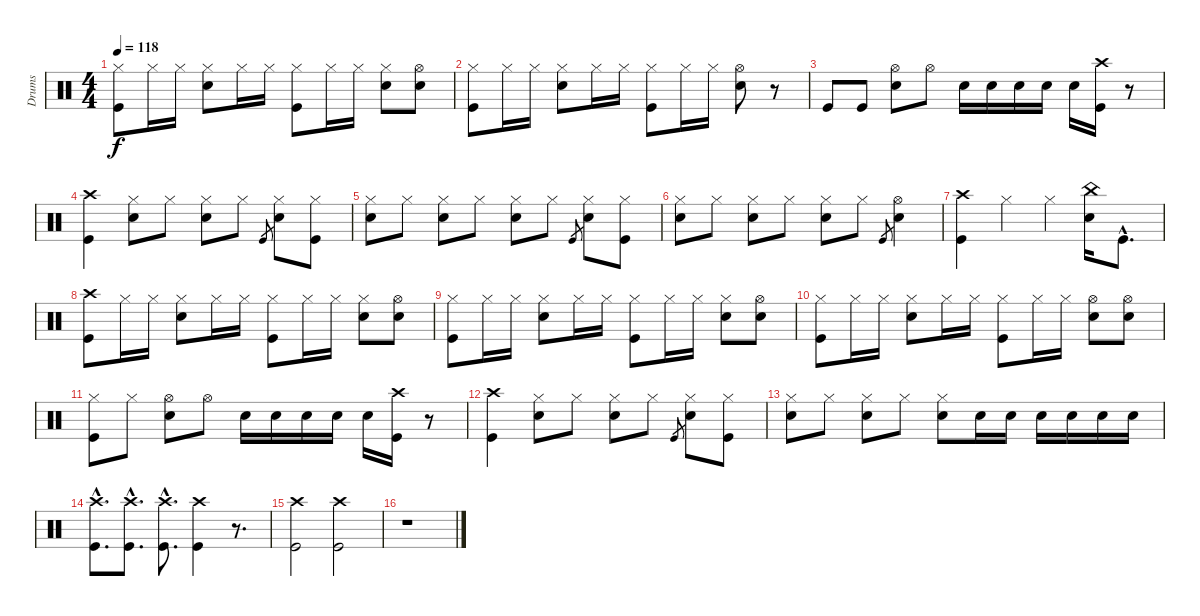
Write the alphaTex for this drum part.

\track ("Drums" "Drums") {instrument percussion}
\staff {score}
\articulation defaults
\ts (4 4)
\tempo 118
\clef neutral
\ks c
("Hi-Hat (closed)" "Kick (hit)").8{dy f} "Hi-Hat (closed)".16 "Hi-Hat (closed)".16 ("Hi-Hat (closed)" "Snare (hit) 2").8 "Hi-Hat (closed)".16 "Hi-Hat (closed)".16 ("Hi-Hat (closed)" "Kick (hit)").8 "Hi-Hat (closed)".16 "Hi-Hat (closed)".16 ("Hi-Hat (closed)" "Snare (hit) 2").8 ("Hi-Hat (open)" "Snare (hit) 2").8 |
("Hi-Hat (closed)" "Kick (hit)").8 "Hi-Hat (closed)".16 "Hi-Hat (closed)".16 ("Hi-Hat (closed)" "Snare (hit) 2").8 "Hi-Hat (closed)".16 "Hi-Hat (closed)".16 ("Hi-Hat (closed)" "Kick (hit)").8 "Hi-Hat (closed)".16 "Hi-Hat (closed)".16 ("Hi-Hat (open)" "Snare (hit) 2").8 r.8 |
"Kick (hit)".8 "Kick (hit)".8 ("Hi-Hat (open)" "Snare (hit) 2").8 "Hi-Hat (open)".8 "Snare (hit) 2".16 "Snare (hit) 2".16 "Snare (hit) 2".16 "Snare (hit) 2".16 "Snare (hit) 2".16 ("Crash high (hit)" "Kick (hit)").16 r.8 |
("Crash high (hit)" "Kick (hit)").4 ("Hi-Hat (closed)" "Snare (hit) 2").8 "Hi-Hat (closed)".8 ("Hi-Hat (closed)" "Snare (hit) 2").8 "Hi-Hat (closed)".8 "Kick (hit)".8{gr} ("Hi-Hat (closed)" "Snare (hit) 2").8 ("Hi-Hat (closed)" "Kick (hit)").8 |
("Hi-Hat (closed)" "Snare (hit) 2").8 "Hi-Hat (closed)".8 ("Hi-Hat (closed)" "Snare (hit) 2").8 "Hi-Hat (closed)".8 ("Hi-Hat (closed)" "Snare (hit) 2").8 "Hi-Hat (closed)".8 "Kick (hit)".8{gr} ("Hi-Hat (closed)" "Snare (hit) 2").8 ("Hi-Hat (closed)" "Kick (hit)").8 |
("Hi-Hat (closed)" "Snare (hit) 2").8 "Hi-Hat (closed)".8 ("Hi-Hat (closed)" "Snare (hit) 2").8 "Hi-Hat (closed)".8 ("Hi-Hat (closed)" "Snare (hit) 2").8 "Hi-Hat (closed)".8 "Kick (hit)".8{gr} ("Hi-Hat (open)" "Snare (hit) 2").4 |
("Crash high (hit)" "Kick (hit)").4 "Hi-Hat (closed)".4 "Hi-Hat (closed)".4 ("China (hit)" "Snare (hit) 2").16 "Kick (hit)"{hac}.8{d} |
("Crash high (hit)" "Kick (hit)").8 "Hi-Hat (closed)".16 "Hi-Hat (closed)".16 ("Hi-Hat (closed)" "Snare (hit) 2").8 "Hi-Hat (closed)".16 "Hi-Hat (closed)".16 ("Hi-Hat (closed)" "Kick (hit)").8 "Hi-Hat (closed)".16 "Hi-Hat (closed)".16 ("Hi-Hat (closed)" "Snare (hit) 2").8 ("Hi-Hat (open)" "Snare (hit) 2").8 |
("Hi-Hat (closed)" "Kick (hit)").8 "Hi-Hat (closed)".16 "Hi-Hat (closed)".16 ("Hi-Hat (closed)" "Snare (hit) 2").8 "Hi-Hat (closed)".16 "Hi-Hat (closed)".16 ("Hi-Hat (closed)" "Kick (hit)").8 "Hi-Hat (closed)".16 "Hi-Hat (closed)".16 ("Hi-Hat (closed)" "Snare (hit) 2").8 ("Hi-Hat (open)" "Snare (hit) 2").8 |
("Hi-Hat (closed)" "Kick (hit)").8 "Hi-Hat (closed)".16 "Hi-Hat (closed)".16 ("Hi-Hat (closed)" "Snare (hit) 2").8 "Hi-Hat (closed)".16 "Hi-Hat (closed)".16 ("Hi-Hat (closed)" "Kick (hit)").8 "Hi-Hat (closed)".16 "Hi-Hat (closed)".16 ("Hi-Hat (open)" "Snare (hit) 2").8 ("Hi-Hat (open)" "Snare (hit) 2").8 |
("Hi-Hat (closed)" "Kick (hit)").8 "Hi-Hat (closed)".8 ("Hi-Hat (open)" "Snare (hit) 2").8 "Hi-Hat (open)".8 "Snare (hit) 2".16 "Snare (hit) 2".16 "Snare (hit) 2".16 "Snare (hit) 2".16 "Snare (hit) 2".16 ("Crash high (hit)" "Kick (hit)").16 r.8 |
("Crash high (hit)" "Kick (hit)").4 ("Hi-Hat (closed)" "Snare (hit) 2").8 "Hi-Hat (closed)".8 ("Hi-Hat (closed)" "Snare (hit) 2").8 "Hi-Hat (closed)".8 "Kick (hit)".8{gr} ("Hi-Hat (closed)" "Snare (hit) 2").8 ("Hi-Hat (closed)" "Kick (hit)").8 |
("Hi-Hat (closed)" "Snare (hit) 2").8 "Hi-Hat (closed)".8 ("Hi-Hat (closed)" "Snare (hit) 2").8 "Hi-Hat (closed)".8 ("Hi-Hat (closed)" "Snare (hit) 2").8 "Snare (hit) 2".16 "Snare (hit) 2".16 "Snare (hit) 2".16 "Snare (hit) 2".16 "Snare (hit) 2".16 "Snare (hit) 2".16 |
("Crash high (hit)"{hac} "Kick (hit)"{hac}).8{d} ("Crash high (hit)"{hac} "Kick (hit)"{hac}).8{d} ("Crash high (hit)"{hac} "Kick (hit)"{hac}).8{d} ("Crash high (hit)" "Kick (hit)").4 r.8{d} |
("Crash high (hit)" "Kick (hit)").2 ("Crash high (hit)" "Kick (hit)").2 |
r.1
